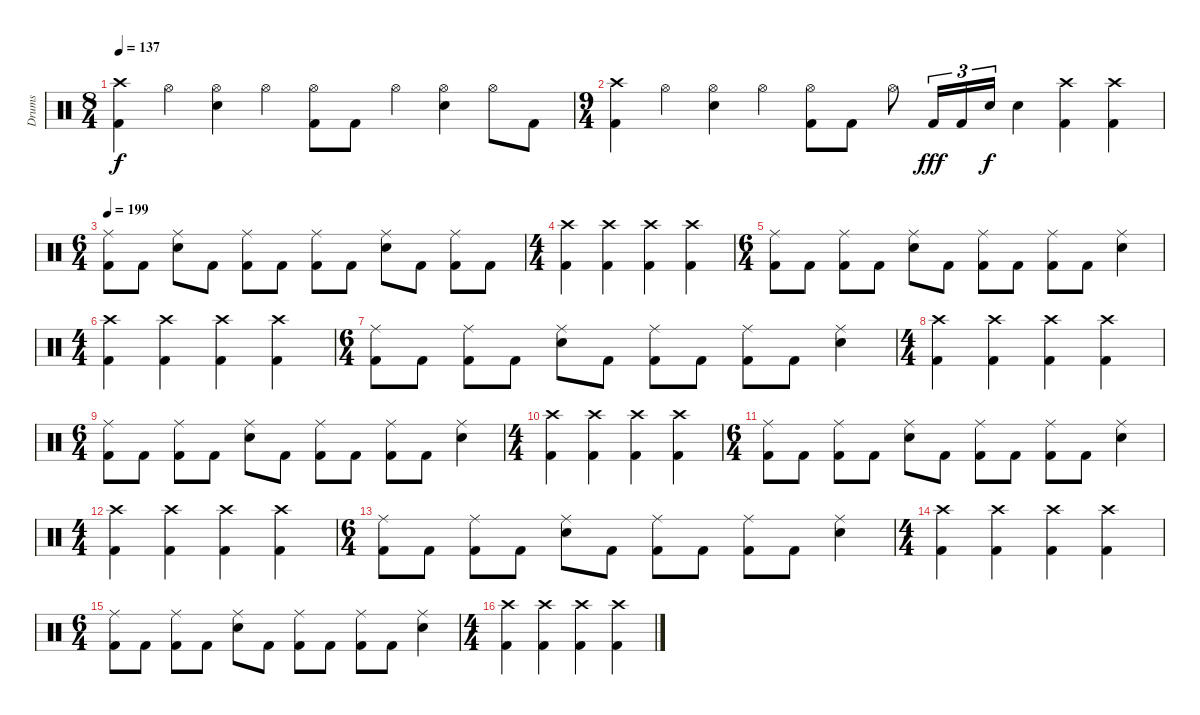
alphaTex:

\track ("Drums" "Drums") {instrument percussion}
\staff {score}
\articulation defaults
\ts (8 4)
\tempo 137
\clef neutral
\ks c
("Crash high (hit)" "Kick (hit) 2").4{dy f} "Hi-Hat (open)".4 ("Hi-Hat (open)" "Snare (hit) 2").4 "Hi-Hat (open)".4 ("Hi-Hat (open)" "Kick (hit) 2").8 "Kick (hit) 2".8 "Hi-Hat (open)".4 ("Hi-Hat (open)" "Snare (hit) 2").4 "Hi-Hat (open)".8 "Kick (hit) 2".8 |
\ts (9 4)
("Crash high (hit)" "Kick (hit) 2").4 "Hi-Hat (open)".4 ("Hi-Hat (open)" "Snare (hit) 2").4 "Hi-Hat (open)".4 ("Hi-Hat (open)" "Kick (hit) 2").8 "Kick (hit) 2".8 "Hi-Hat (open)".8 "Kick (hit) 2".16{tu (3 2) dy fff} "Kick (hit) 2".16{tu (3 2)} "Snare (hit) 2".16{tu (3 2) dy f} "Snare (hit) 2".4 ("Crash high (hit)" "Kick (hit) 2").4 ("Crash high (hit)" "Kick (hit) 2").4 |
\ts (6 4)
\tempo 199
("Ride (middle)" "Kick (hit) 2").8 "Kick (hit) 2".8 ("Ride (middle)" "Snare (hit) 2").8 "Kick (hit) 2".8 ("Ride (middle)" "Kick (hit) 2").8 "Kick (hit) 2".8 ("Ride (middle)" "Kick (hit) 2").8 "Kick (hit) 2".8 ("Ride (middle)" "Snare (hit) 2").8 "Kick (hit) 2".8 ("Ride (middle)" "Kick (hit) 2").8 "Kick (hit) 2".8 |
\ts (4 4)
("Crash high (hit)" "Kick (hit) 2").4 ("Crash high (hit)" "Kick (hit) 2").4 ("Crash high (hit)" "Kick (hit) 2").4 ("Crash high (hit)" "Kick (hit) 2").4 |
\ts (6 4)
("Ride (middle)" "Kick (hit) 2").8 "Kick (hit) 2".8 ("Ride (middle)" "Kick (hit) 2").8 "Kick (hit) 2".8 ("Ride (middle)" "Snare (hit) 2").8 "Kick (hit) 2".8 ("Ride (middle)" "Kick (hit) 2").8 "Kick (hit) 2".8 ("Ride (middle)" "Kick (hit) 2").8 "Kick (hit) 2".8 ("Ride (middle)" "Snare (hit) 2").4 |
\ts (4 4)
("Crash high (hit)" "Kick (hit) 2").4 ("Crash high (hit)" "Kick (hit) 2").4 ("Crash high (hit)" "Kick (hit) 2").4 ("Crash high (hit)" "Kick (hit) 2").4 |
\ts (6 4)
("Ride (middle)" "Kick (hit) 2").8 "Kick (hit) 2".8 ("Ride (middle)" "Kick (hit) 2").8 "Kick (hit) 2".8 ("Ride (middle)" "Snare (hit) 2").8 "Kick (hit) 2".8 ("Ride (middle)" "Kick (hit) 2").8 "Kick (hit) 2".8 ("Ride (middle)" "Kick (hit) 2").8 "Kick (hit) 2".8 ("Ride (middle)" "Snare (hit) 2").4 |
\ts (4 4)
("Crash high (hit)" "Kick (hit) 2").4 ("Crash high (hit)" "Kick (hit) 2").4 ("Crash high (hit)" "Kick (hit) 2").4 ("Crash high (hit)" "Kick (hit) 2").4 |
\ts (6 4)
("Ride (middle)" "Kick (hit) 2").8 "Kick (hit) 2".8 ("Ride (middle)" "Kick (hit) 2").8 "Kick (hit) 2".8 ("Ride (middle)" "Snare (hit) 2").8 "Kick (hit) 2".8 ("Ride (middle)" "Kick (hit) 2").8 "Kick (hit) 2".8 ("Ride (middle)" "Kick (hit) 2").8 "Kick (hit) 2".8 ("Ride (middle)" "Snare (hit) 2").4 |
\ts (4 4)
("Crash high (hit)" "Kick (hit) 2").4 ("Crash high (hit)" "Kick (hit) 2").4 ("Crash high (hit)" "Kick (hit) 2").4 ("Crash high (hit)" "Kick (hit) 2").4 |
\ts (6 4)
("Ride (middle)" "Kick (hit) 2").8 "Kick (hit) 2".8 ("Ride (middle)" "Kick (hit) 2").8 "Kick (hit) 2".8 ("Ride (middle)" "Snare (hit) 2").8 "Kick (hit) 2".8 ("Ride (middle)" "Kick (hit) 2").8 "Kick (hit) 2".8 ("Ride (middle)" "Kick (hit) 2").8 "Kick (hit) 2".8 ("Ride (middle)" "Snare (hit) 2").4 |
\ts (4 4)
("Crash high (hit)" "Kick (hit) 2").4 ("Crash high (hit)" "Kick (hit) 2").4 ("Crash high (hit)" "Kick (hit) 2").4 ("Crash high (hit)" "Kick (hit) 2").4 |
\ts (6 4)
("Ride (middle)" "Kick (hit) 2").8 "Kick (hit) 2".8 ("Ride (middle)" "Kick (hit) 2").8 "Kick (hit) 2".8 ("Ride (middle)" "Snare (hit) 2").8 "Kick (hit) 2".8 ("Ride (middle)" "Kick (hit) 2").8 "Kick (hit) 2".8 ("Ride (middle)" "Kick (hit) 2").8 "Kick (hit) 2".8 ("Ride (middle)" "Snare (hit) 2").4 |
\ts (4 4)
("Crash high (hit)" "Kick (hit) 2").4 ("Crash high (hit)" "Kick (hit) 2").4 ("Crash high (hit)" "Kick (hit) 2").4 ("Crash high (hit)" "Kick (hit) 2").4 |
\ts (6 4)
("Ride (middle)" "Kick (hit) 2").8 "Kick (hit) 2".8 ("Ride (middle)" "Kick (hit) 2").8 "Kick (hit) 2".8 ("Ride (middle)" "Snare (hit) 2").8 "Kick (hit) 2".8 ("Ride (middle)" "Kick (hit) 2").8 "Kick (hit) 2".8 ("Ride (middle)" "Kick (hit) 2").8 "Kick (hit) 2".8 ("Ride (middle)" "Snare (hit) 2").4 |
\ts (4 4)
("Crash high (hit)" "Kick (hit) 2").4 ("Crash high (hit)" "Kick (hit) 2").4 ("Crash high (hit)" "Kick (hit) 2").4 ("Crash high (hit)" "Kick (hit) 2").4
